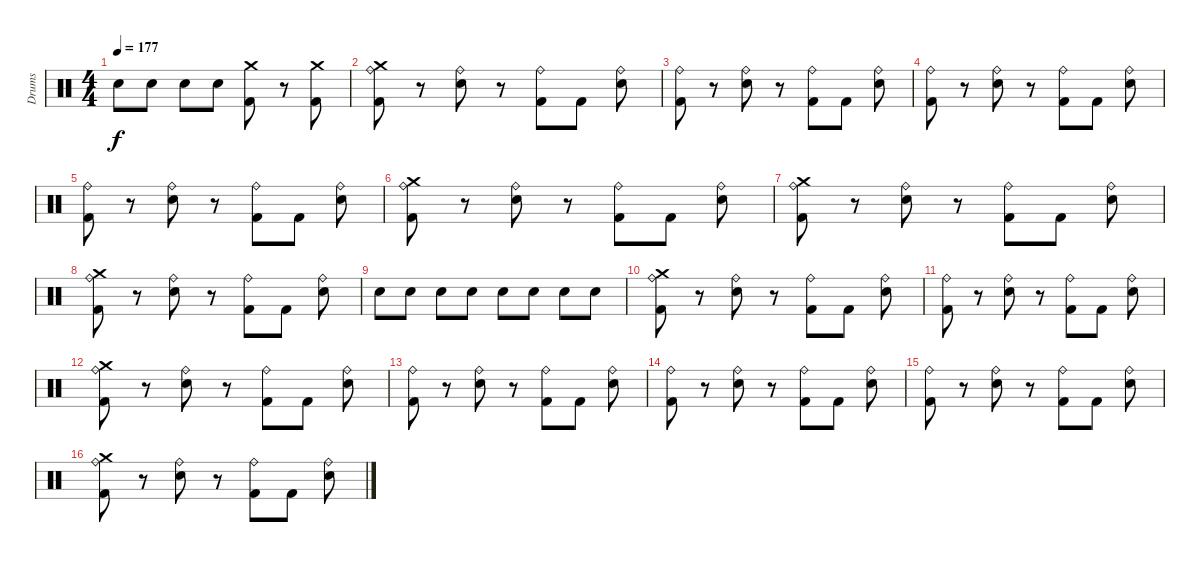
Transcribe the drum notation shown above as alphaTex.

\track ("Drums" "Drums") {instrument percussion}
\staff {score}
\articulation defaults
\ts (4 4)
\tempo 177
\clef neutral
\ks c "Snare (hit) 2".8{dy f} "Snare (hit) 2".8 "Snare (hit) 2".8 "Snare (hit) 2".8
("Crash medium (hit)" "Kick (hit) 2").8 r.8 ("Crash medium (hit)" "Kick (hit) 2").8 |
("Ride (bell)" "Crash medium (hit)" "Kick (hit) 2").8 r.8 ("Ride (bell)" "Snare (hit) 2").8 r.8 ("Ride (bell)" "Kick (hit) 2").8 "Kick (hit) 2".8 ("Ride (bell)" "Snare (hit) 2").8 |
("Ride (bell)" "Kick (hit) 2").8 r.8 ("Ride (bell)" "Snare (hit) 2").8 r.8 ("Ride (bell)" "Kick (hit) 2").8 "Kick (hit) 2".8 ("Ride (bell)" "Snare (hit) 2").8 |
("Ride (bell)" "Kick (hit) 2").8 r.8 ("Ride (bell)" "Snare (hit) 2").8 r.8 ("Ride (bell)" "Kick (hit) 2").8 "Kick (hit) 2".8 ("Ride (bell)" "Snare (hit) 2").8 |
("Ride (bell)" "Kick (hit) 2").8 r.8 ("Ride (bell)" "Snare (hit) 2").8 r.8 ("Ride (bell)" "Kick (hit) 2").8 "Kick (hit) 2".8 ("Ride (bell)" "Snare (hit) 2").8 |
("Ride (bell)" "Crash medium (hit)" "Kick (hit) 2").8 r.8 ("Ride (bell)" "Snare (hit) 2").8 r.8 ("Ride (bell)" "Kick (hit) 2").8 "Kick (hit) 2".8 ("Ride (bell)" "Snare (hit) 2").8 |
("Ride (bell)" "Crash medium (hit)" "Kick (hit) 2").8 r.8 ("Ride (bell)" "Snare (hit) 2").8 r.8 ("Ride (bell)" "Kick (hit) 2").8 "Kick (hit) 2".8 ("Ride (bell)" "Snare (hit) 2").8 |
("Ride (bell)" "Crash medium (hit)" "Kick (hit) 2").8 r.8 ("Ride (bell)" "Snare (hit) 2").8 r.8 ("Ride (bell)" "Kick (hit) 2").8 "Kick (hit) 2".8 ("Ride (bell)" "Snare (hit) 2").8 |
"Snare (hit) 2".8 "Snare (hit) 2".8 "Snare (hit) 2".8 "Snare (hit) 2".8 "Snare (hit) 2".8 "Snare (hit) 2".8 "Snare (hit) 2".8 "Snare (hit) 2".8 |
("Ride (bell)" "Crash medium (hit)" "Kick (hit) 2").8 r.8 ("Ride (bell)" "Snare (hit) 2").8 r.8 ("Ride (bell)" "Kick (hit) 2").8 "Kick (hit) 2".8 ("Ride (bell)" "Snare (hit) 2").8 |
("Ride (bell)" "Kick (hit) 2").8 r.8 ("Ride (bell)" "Snare (hit) 2").8 r.8 ("Ride (bell)" "Kick (hit) 2").8 "Kick (hit) 2".8 ("Ride (bell)" "Snare (hit) 2").8 |
("Ride (bell)" "Crash medium (hit)" "Kick (hit) 2").8 r.8 ("Ride (bell)" "Snare (hit) 2").8 r.8 ("Ride (bell)" "Kick (hit) 2").8 "Kick (hit) 2".8 ("Ride (bell)" "Snare (hit) 2").8 |
("Ride (bell)" "Kick (hit) 2").8 r.8 ("Ride (bell)" "Snare (hit) 2").8 r.8 ("Ride (bell)" "Kick (hit) 2").8 "Kick (hit) 2".8 ("Ride (bell)" "Snare (hit) 2").8 |
("Ride (bell)" "Kick (hit) 2").8 r.8 ("Ride (bell)" "Snare (hit) 2").8 r.8 ("Ride (bell)" "Kick (hit) 2").8 "Kick (hit) 2".8 ("Ride (bell)" "Snare (hit) 2").8 |
("Ride (bell)" "Kick (hit) 2").8 r.8 ("Ride (bell)" "Snare (hit) 2").8 r.8 ("Ride (bell)" "Kick (hit) 2").8 "Kick (hit) 2".8 ("Ride (bell)" "Snare (hit) 2").8 |
("Ride (bell)" "Crash medium (hit)" "Kick (hit) 2").8 r.8 ("Ride (bell)" "Snare (hit) 2").8 r.8 ("Ride (bell)" "Kick (hit) 2").8 "Kick (hit) 2".8 ("Ride (bell)" "Snare (hit) 2").8
